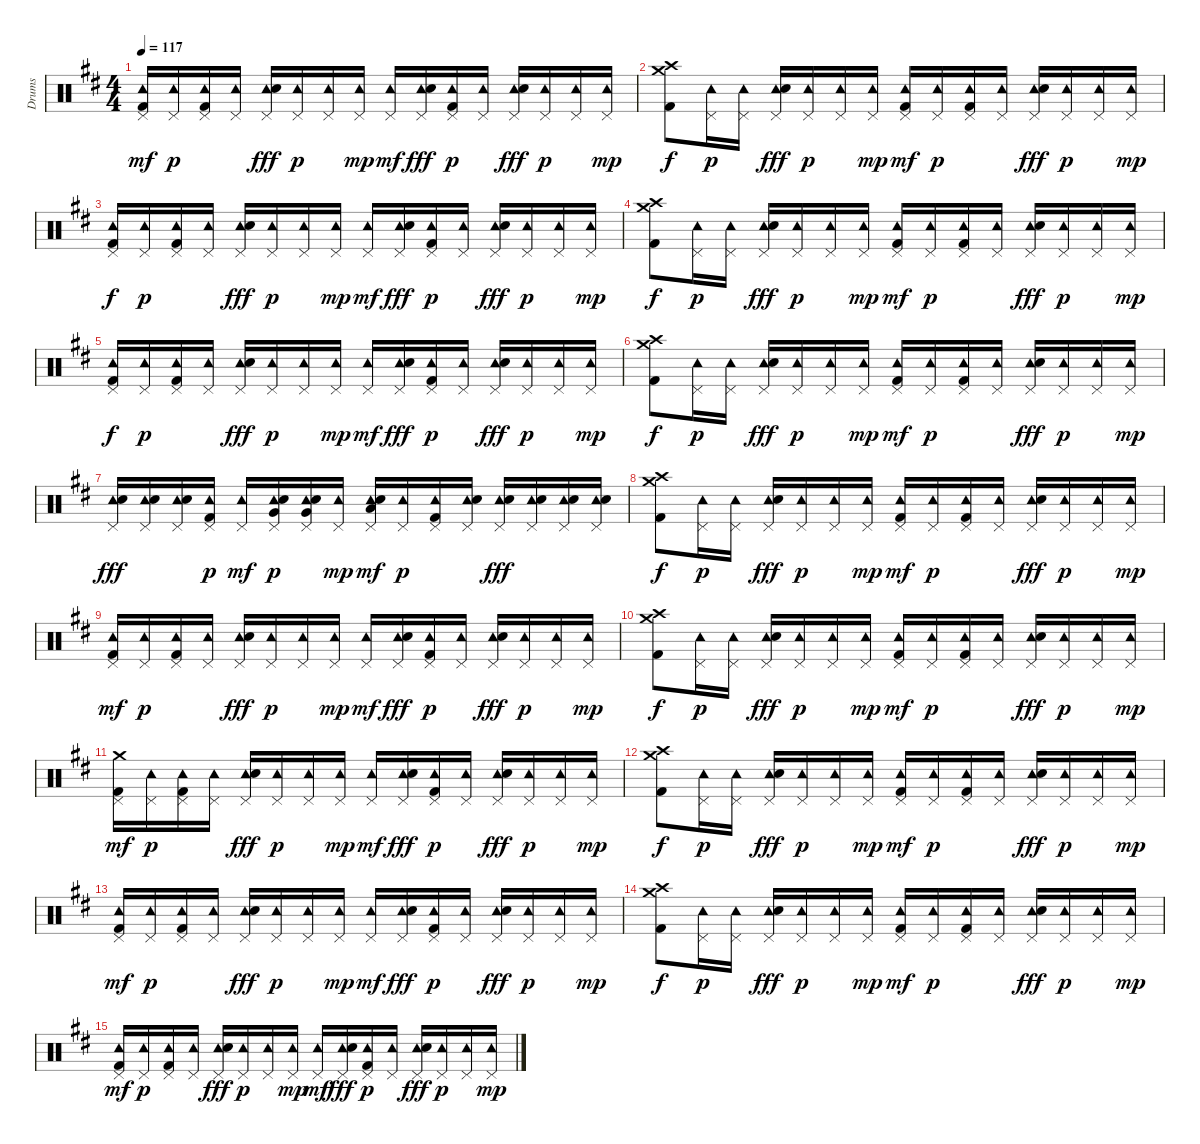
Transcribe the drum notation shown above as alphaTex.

\track ("Drums" "Drums") {instrument percussion}
\staff {score}
\articulation defaults
\ts (4 4)
\tempo 117
\clef neutral
\ks d
("Pedal Hi-Hat (hit)" "Tambourine (hit)" "Kick (hit) 2").16{dy mf} ("Pedal Hi-Hat (hit)" "Tambourine (hit)").16{dy p} ("Pedal Hi-Hat (hit)" "Tambourine (hit)" "Kick (hit) 2").16 ("Pedal Hi-Hat (hit)" "Tambourine (hit)").16 ("Tambourine (hit)" "Pedal Hi-Hat (hit)" "Electric Snare (hit)").16{dy fff} ("Pedal Hi-Hat (hit)" "Tambourine (hit)").16{dy p} ("Pedal Hi-Hat (hit)" "Tambourine (hit)").16 ("Tambourine (hit)" "Pedal Hi-Hat (hit)").16{dy mp} ("Tambourine (hit)" "Pedal Hi-Hat (hit)").16{dy mf} ("Pedal Hi-Hat (hit)" "Tambourine (hit)" "Electric Snare (hit)").16{dy fff} ("Pedal Hi-Hat (hit)" "Tambourine (hit)" "Kick (hit) 2").16{dy p} ("Tambourine (hit)" "Pedal Hi-Hat (hit)").16 ("Tambourine (hit)" "Pedal Hi-Hat (hit)" "Electric Snare (hit)").16{dy fff} ("Tambourine (hit)" "Pedal Hi-Hat (hit)").16{dy p} ("Tambourine (hit)" "Pedal Hi-Hat (hit)").16 ("Pedal Hi-Hat (hit)" "Tambourine (hit)").16{dy mp} |
("Crash medium (hit)" "Crash high (hit)" "Kick (hit) 2").8{dy f} ("Tambourine (hit)" "Pedal Hi-Hat (hit)").16{dy p} ("Tambourine (hit)" "Pedal Hi-Hat (hit)").16 ("Pedal Hi-Hat (hit)" "Tambourine (hit)" "Electric Snare (hit)").16{dy fff} ("Pedal Hi-Hat (hit)" "Tambourine (hit)").16{dy p} ("Pedal Hi-Hat (hit)" "Tambourine (hit)").16 ("Tambourine (hit)" "Pedal Hi-Hat (hit)").16{dy mp} ("Pedal Hi-Hat (hit)" "Tambourine (hit)" "Kick (hit) 2").16{dy mf} ("Pedal Hi-Hat (hit)" "Tambourine (hit)").16{dy p} ("Tambourine (hit)" "Pedal Hi-Hat (hit)" "Kick (hit) 2").16 ("Pedal Hi-Hat (hit)" "Tambourine (hit)").16 ("Pedal Hi-Hat (hit)" "Tambourine (hit)" "Electric Snare (hit)").16{dy fff} ("Tambourine (hit)" "Pedal Hi-Hat (hit)").16{dy p} ("Pedal Hi-Hat (hit)" "Tambourine (hit)").16 ("Pedal Hi-Hat (hit)" "Tambourine (hit)").16{dy mp} |
("Pedal Hi-Hat (hit)" "Tambourine (hit)" "Kick (hit) 2").16{dy f} ("Pedal Hi-Hat (hit)" "Tambourine (hit)").16{dy p} ("Pedal Hi-Hat (hit)" "Tambourine (hit)" "Kick (hit) 2").16 ("Pedal Hi-Hat (hit)" "Tambourine (hit)").16 ("Tambourine (hit)" "Pedal Hi-Hat (hit)" "Electric Snare (hit)").16{dy fff} ("Tambourine (hit)" "Pedal Hi-Hat (hit)").16{dy p} ("Tambourine (hit)" "Pedal Hi-Hat (hit)").16 ("Tambourine (hit)" "Pedal Hi-Hat (hit)").16{dy mp} ("Tambourine (hit)" "Pedal Hi-Hat (hit)").16{dy mf} ("Pedal Hi-Hat (hit)" "Tambourine (hit)" "Electric Snare (hit)").16{dy fff} ("Tambourine (hit)" "Pedal Hi-Hat (hit)" "Kick (hit) 2").16{dy p} ("Tambourine (hit)" "Pedal Hi-Hat (hit)").16 ("Pedal Hi-Hat (hit)" "Tambourine (hit)" "Electric Snare (hit)").16{dy fff} ("Tambourine (hit)" "Pedal Hi-Hat (hit)").16{dy p} ("Tambourine (hit)" "Pedal Hi-Hat (hit)").16 ("Tambourine (hit)" "Pedal Hi-Hat (hit)").16{dy mp} |
("Crash medium (hit)" "Crash high (hit)" "Kick (hit) 2").8{dy f} ("Tambourine (hit)" "Pedal Hi-Hat (hit)").16{dy p} ("Pedal Hi-Hat (hit)" "Tambourine (hit)").16 ("Tambourine (hit)" "Pedal Hi-Hat (hit)" "Electric Snare (hit)").16{dy fff} ("Tambourine (hit)" "Pedal Hi-Hat (hit)").16{dy p} ("Tambourine (hit)" "Pedal Hi-Hat (hit)").16 ("Pedal Hi-Hat (hit)" "Tambourine (hit)").16{dy mp} ("Pedal Hi-Hat (hit)" "Tambourine (hit)" "Kick (hit) 2").16{dy mf} ("Tambourine (hit)" "Pedal Hi-Hat (hit)").16{dy p} ("Pedal Hi-Hat (hit)" "Tambourine (hit)" "Kick (hit) 2").16 ("Pedal Hi-Hat (hit)" "Tambourine (hit)").16 ("Tambourine (hit)" "Pedal Hi-Hat (hit)" "Electric Snare (hit)").16{dy fff} ("Pedal Hi-Hat (hit)" "Tambourine (hit)").16{dy p} ("Tambourine (hit)" "Pedal Hi-Hat (hit)").16 ("Tambourine (hit)" "Pedal Hi-Hat (hit)").16{dy mp} |
("Pedal Hi-Hat (hit)" "Tambourine (hit)" "Kick (hit) 2").16{dy f} ("Pedal Hi-Hat (hit)" "Tambourine (hit)").16{dy p} ("Pedal Hi-Hat (hit)" "Tambourine (hit)" "Kick (hit) 2").16 ("Pedal Hi-Hat (hit)" "Tambourine (hit)").16 ("Pedal Hi-Hat (hit)" "Tambourine (hit)" "Electric Snare (hit)").16{dy fff} ("Tambourine (hit)" "Pedal Hi-Hat (hit)").16{dy p} ("Tambourine (hit)" "Pedal Hi-Hat (hit)").16 ("Pedal Hi-Hat (hit)" "Tambourine (hit)").16{dy mp} ("Pedal Hi-Hat (hit)" "Tambourine (hit)").16{dy mf} ("Tambourine (hit)" "Pedal Hi-Hat (hit)" "Electric Snare (hit)").16{dy fff} ("Pedal Hi-Hat (hit)" "Tambourine (hit)" "Kick (hit) 2").16{dy p} ("Pedal Hi-Hat (hit)" "Tambourine (hit)").16 ("Tambourine (hit)" "Pedal Hi-Hat (hit)" "Electric Snare (hit)").16{dy fff} ("Pedal Hi-Hat (hit)" "Tambourine (hit)").16{dy p} ("Tambourine (hit)" "Pedal Hi-Hat (hit)").16 ("Pedal Hi-Hat (hit)" "Tambourine (hit)").16{dy mp} |
("Crash medium (hit)" "Crash high (hit)" "Kick (hit) 2").8{dy f} ("Pedal Hi-Hat (hit)" "Tambourine (hit)").16{dy p} ("Pedal Hi-Hat (hit)" "Tambourine (hit)").16 ("Tambourine (hit)" "Pedal Hi-Hat (hit)" "Electric Snare (hit)").16{dy fff} ("Pedal Hi-Hat (hit)" "Tambourine (hit)").16{dy p} ("Pedal Hi-Hat (hit)" "Tambourine (hit)").16 ("Pedal Hi-Hat (hit)" "Tambourine (hit)").16{dy mp} ("Tambourine (hit)" "Pedal Hi-Hat (hit)" "Kick (hit) 2").16{dy mf} ("Tambourine (hit)" "Pedal Hi-Hat (hit)").16{dy p} ("Pedal Hi-Hat (hit)" "Tambourine (hit)" "Kick (hit) 2").16 ("Pedal Hi-Hat (hit)" "Tambourine (hit)").16 ("Tambourine (hit)" "Pedal Hi-Hat (hit)" "Electric Snare (hit)").16{dy fff} ("Pedal Hi-Hat (hit)" "Tambourine (hit)").16{dy p} ("Tambourine (hit)" "Pedal Hi-Hat (hit)").16 ("Tambourine (hit)" "Pedal Hi-Hat (hit)").16{dy mp} |
("Pedal Hi-Hat (hit)" "Tambourine (hit)" "Electric Snare (hit)").16{dy fff} ("Tambourine (hit)" "Pedal Hi-Hat (hit)" "Electric Snare (hit)").16 ("Pedal Hi-Hat (hit)" "Tambourine (hit)" "Electric Snare (hit)").16 ("Pedal Hi-Hat (hit)" "Tambourine (hit)" "Kick (hit) 2").16{dy p} ("Tambourine (hit)" "Pedal Hi-Hat (hit)").16{dy mf} ("Tambourine (hit)" "Pedal Hi-Hat (hit)" "Snare (hit) 2" "Very Low Tom (hit)").16{dy p} ("Pedal Hi-Hat (hit)" "Tambourine (hit)" "Snare (hit) 2" "Very Low Tom (hit)").16 ("Tambourine (hit)" "Pedal Hi-Hat (hit)").16{dy mp} ("Pedal Hi-Hat (hit)" "Tambourine (hit)" "Snare (hit) 2" "Low Floor Tom (hit)").16{dy mf} ("Pedal Hi-Hat (hit)" "Tambourine (hit)").16{dy p} ("Pedal Hi-Hat (hit)" "Tambourine (hit)" "Kick (hit) 2").16 ("Pedal Hi-Hat (hit)" "Tambourine (hit)" "Snare (hit) 2").16 ("Pedal Hi-Hat (hit)" "Tambourine (hit)" "Electric Snare (hit)").16{dy fff} ("Tambourine (hit)" "Pedal Hi-Hat (hit)" "Electric Snare (hit)").16 ("Tambourine (hit)" "Pedal Hi-Hat (hit)" "Electric Snare (hit)").16 ("Tambourine (hit)" "Pedal Hi-Hat (hit)" "Electric Snare (hit)").16 |
("Crash high (hit)" "Crash medium (hit)" "Kick (hit) 2").8{dy f} ("Tambourine (hit)" "Pedal Hi-Hat (hit)").16{dy p} ("Pedal Hi-Hat (hit)" "Tambourine (hit)").16 ("Pedal Hi-Hat (hit)" "Tambourine (hit)" "Electric Snare (hit)").16{dy fff} ("Pedal Hi-Hat (hit)" "Tambourine (hit)").16{dy p} ("Tambourine (hit)" "Pedal Hi-Hat (hit)").16 ("Pedal Hi-Hat (hit)" "Tambourine (hit)").16{dy mp} ("Pedal Hi-Hat (hit)" "Tambourine (hit)" "Kick (hit) 2").16{dy mf} ("Pedal Hi-Hat (hit)" "Tambourine (hit)").16{dy p} ("Pedal Hi-Hat (hit)" "Tambourine (hit)" "Kick (hit) 2").16 ("Tambourine (hit)" "Pedal Hi-Hat (hit)").16 ("Pedal Hi-Hat (hit)" "Tambourine (hit)" "Electric Snare (hit)").16{dy fff} ("Pedal Hi-Hat (hit)" "Tambourine (hit)").16{dy p} ("Pedal Hi-Hat (hit)" "Tambourine (hit)").16 ("Pedal Hi-Hat (hit)" "Tambourine (hit)").16{dy mp} |
("Tambourine (hit)" "Pedal Hi-Hat (hit)" "Kick (hit) 2").16{dy mf} ("Pedal Hi-Hat (hit)" "Tambourine (hit)").16{dy p} ("Tambourine (hit)" "Pedal Hi-Hat (hit)" "Kick (hit) 2").16 ("Pedal Hi-Hat (hit)" "Tambourine (hit)").16 ("Pedal Hi-Hat (hit)" "Tambourine (hit)" "Electric Snare (hit)").16{dy fff} ("Tambourine (hit)" "Pedal Hi-Hat (hit)").16{dy p} ("Tambourine (hit)" "Pedal Hi-Hat (hit)").16 ("Tambourine (hit)" "Pedal Hi-Hat (hit)").16{dy mp} ("Pedal Hi-Hat (hit)" "Tambourine (hit)").16{dy mf} ("Tambourine (hit)" "Pedal Hi-Hat (hit)" "Electric Snare (hit)").16{dy fff} ("Tambourine (hit)" "Pedal Hi-Hat (hit)" "Kick (hit) 2").16{dy p} ("Tambourine (hit)" "Pedal Hi-Hat (hit)").16 ("Pedal Hi-Hat (hit)" "Tambourine (hit)" "Electric Snare (hit)").16{dy fff} ("Pedal Hi-Hat (hit)" "Tambourine (hit)").16{dy p} ("Pedal Hi-Hat (hit)" "Tambourine (hit)").16 ("Pedal Hi-Hat (hit)" "Tambourine (hit)").16{dy mp} |
("Crash medium (hit)" "Crash high (hit)" "Kick (hit) 2").8{dy f} ("Pedal Hi-Hat (hit)" "Tambourine (hit)").16{dy p} ("Pedal Hi-Hat (hit)" "Tambourine (hit)").16 ("Pedal Hi-Hat (hit)" "Tambourine (hit)" "Electric Snare (hit)").16{dy fff} ("Tambourine (hit)" "Pedal Hi-Hat (hit)").16{dy p} ("Tambourine (hit)" "Pedal Hi-Hat (hit)").16 ("Tambourine (hit)" "Pedal Hi-Hat (hit)").16{dy mp} ("Pedal Hi-Hat (hit)" "Tambourine (hit)" "Kick (hit) 2").16{dy mf} ("Tambourine (hit)" "Pedal Hi-Hat (hit)").16{dy p} ("Pedal Hi-Hat (hit)" "Tambourine (hit)" "Kick (hit) 2").16 ("Pedal Hi-Hat (hit)" "Tambourine (hit)").16 ("Pedal Hi-Hat (hit)" "Tambourine (hit)" "Electric Snare (hit)").16{dy fff} ("Tambourine (hit)" "Pedal Hi-Hat (hit)").16{dy p} ("Pedal Hi-Hat (hit)" "Tambourine (hit)").16 ("Tambourine (hit)" "Pedal Hi-Hat (hit)").16{dy mp} |
("Crash medium (hit)" "Pedal Hi-Hat (hit)" "Kick (hit) 2").16{dy mf} ("Tambourine (hit)" "Pedal Hi-Hat (hit)").16{dy p} ("Pedal Hi-Hat (hit)" "Tambourine (hit)" "Kick (hit) 2").16 ("Pedal Hi-Hat (hit)" "Tambourine (hit)").16 ("Pedal Hi-Hat (hit)" "Tambourine (hit)" "Electric Snare (hit)").16{dy fff} ("Pedal Hi-Hat (hit)" "Tambourine (hit)").16{dy p} ("Pedal Hi-Hat (hit)" "Tambourine (hit)").16 ("Pedal Hi-Hat (hit)" "Tambourine (hit)").16{dy mp} ("Tambourine (hit)" "Pedal Hi-Hat (hit)").16{dy mf} ("Tambourine (hit)" "Pedal Hi-Hat (hit)" "Electric Snare (hit)").16{dy fff} ("Tambourine (hit)" "Pedal Hi-Hat (hit)" "Kick (hit) 2").16{dy p} ("Tambourine (hit)" "Pedal Hi-Hat (hit)").16 ("Pedal Hi-Hat (hit)" "Tambourine (hit)" "Electric Snare (hit)").16{dy fff} ("Tambourine (hit)" "Pedal Hi-Hat (hit)").16{dy p} ("Tambourine (hit)" "Pedal Hi-Hat (hit)").16 ("Pedal Hi-Hat (hit)" "Tambourine (hit)").16{dy mp} |
("Crash medium (hit)" "Crash high (hit)" "Kick (hit) 2").8{dy f} ("Tambourine (hit)" "Pedal Hi-Hat (hit)").16{dy p} ("Pedal Hi-Hat (hit)" "Tambourine (hit)").16 ("Tambourine (hit)" "Pedal Hi-Hat (hit)" "Electric Snare (hit)").16{dy fff} ("Pedal Hi-Hat (hit)" "Tambourine (hit)").16{dy p} ("Tambourine (hit)" "Pedal Hi-Hat (hit)").16 ("Tambourine (hit)" "Pedal Hi-Hat (hit)").16{dy mp} ("Pedal Hi-Hat (hit)" "Tambourine (hit)" "Kick (hit) 2").16{dy mf} ("Pedal Hi-Hat (hit)" "Tambourine (hit)").16{dy p} ("Pedal Hi-Hat (hit)" "Tambourine (hit)" "Kick (hit) 2").16 ("Tambourine (hit)" "Pedal Hi-Hat (hit)").16 ("Tambourine (hit)" "Pedal Hi-Hat (hit)" "Electric Snare (hit)").16{dy fff} ("Tambourine (hit)" "Pedal Hi-Hat (hit)").16{dy p} ("Pedal Hi-Hat (hit)" "Tambourine (hit)").16 ("Tambourine (hit)" "Pedal Hi-Hat (hit)").16{dy mp} |
("Pedal Hi-Hat (hit)" "Tambourine (hit)" "Kick (hit) 2").16{dy mf} ("Tambourine (hit)" "Pedal Hi-Hat (hit)").16{dy p} ("Tambourine (hit)" "Pedal Hi-Hat (hit)" "Kick (hit) 2").16 ("Tambourine (hit)" "Pedal Hi-Hat (hit)").16 ("Pedal Hi-Hat (hit)" "Tambourine (hit)" "Electric Snare (hit)").16{dy fff} ("Pedal Hi-Hat (hit)" "Tambourine (hit)").16{dy p} ("Tambourine (hit)" "Pedal Hi-Hat (hit)").16 ("Pedal Hi-Hat (hit)" "Tambourine (hit)").16{dy mp} ("Pedal Hi-Hat (hit)" "Tambourine (hit)").16{dy mf} ("Tambourine (hit)" "Pedal Hi-Hat (hit)" "Electric Snare (hit)").16{dy fff} ("Pedal Hi-Hat (hit)" "Tambourine (hit)" "Kick (hit) 2").16{dy p} ("Tambourine (hit)" "Pedal Hi-Hat (hit)").16 ("Tambourine (hit)" "Pedal Hi-Hat (hit)" "Electric Snare (hit)").16{dy fff} ("Tambourine (hit)" "Pedal Hi-Hat (hit)").16{dy p} ("Tambourine (hit)" "Pedal Hi-Hat (hit)").16 ("Pedal Hi-Hat (hit)" "Tambourine (hit)").16{dy mp} |
("Crash medium (hit)" "Crash high (hit)" "Kick (hit) 2").8{dy f} ("Tambourine (hit)" "Pedal Hi-Hat (hit)").16{dy p} ("Pedal Hi-Hat (hit)" "Tambourine (hit)").16 ("Tambourine (hit)" "Pedal Hi-Hat (hit)" "Electric Snare (hit)").16{dy fff} ("Tambourine (hit)" "Pedal Hi-Hat (hit)").16{dy p} ("Tambourine (hit)" "Pedal Hi-Hat (hit)").16 ("Pedal Hi-Hat (hit)" "Tambourine (hit)").16{dy mp} ("Tambourine (hit)" "Pedal Hi-Hat (hit)" "Kick (hit) 2").16{dy mf} ("Pedal Hi-Hat (hit)" "Tambourine (hit)").16{dy p} ("Tambourine (hit)" "Pedal Hi-Hat (hit)" "Kick (hit) 2").16 ("Tambourine (hit)" "Pedal Hi-Hat (hit)").16 ("Pedal Hi-Hat (hit)" "Tambourine (hit)" "Electric Snare (hit)").16{dy fff} ("Pedal Hi-Hat (hit)" "Tambourine (hit)").16{dy p} ("Tambourine (hit)" "Pedal Hi-Hat (hit)").16 ("Tambourine (hit)" "Pedal Hi-Hat (hit)").16{dy mp} |
("Tambourine (hit)" "Pedal Hi-Hat (hit)" "Kick (hit) 2").16{dy mf} ("Pedal Hi-Hat (hit)" "Tambourine (hit)").16{dy p} ("Pedal Hi-Hat (hit)" "Tambourine (hit)" "Kick (hit) 2").16 ("Pedal Hi-Hat (hit)" "Tambourine (hit)").16 ("Pedal Hi-Hat (hit)" "Tambourine (hit)" "Electric Snare (hit)").16{dy fff} ("Pedal Hi-Hat (hit)" "Tambourine (hit)").16{dy p} ("Tambourine (hit)" "Pedal Hi-Hat (hit)").16 ("Tambourine (hit)" "Pedal Hi-Hat (hit)").16{dy mp} ("Pedal Hi-Hat (hit)" "Tambourine (hit)").16{dy mf} ("Tambourine (hit)" "Pedal Hi-Hat (hit)" "Electric Snare (hit)").16{dy fff} ("Tambourine (hit)" "Pedal Hi-Hat (hit)" "Kick (hit) 2").16{dy p} ("Tambourine (hit)" "Pedal Hi-Hat (hit)").16 ("Pedal Hi-Hat (hit)" "Tambourine (hit)" "Electric Snare (hit)").16{dy fff} ("Tambourine (hit)" "Pedal Hi-Hat (hit)").16{dy p} ("Pedal Hi-Hat (hit)" "Tambourine (hit)").16 ("Tambourine (hit)" "Pedal Hi-Hat (hit)").16{dy mp}
